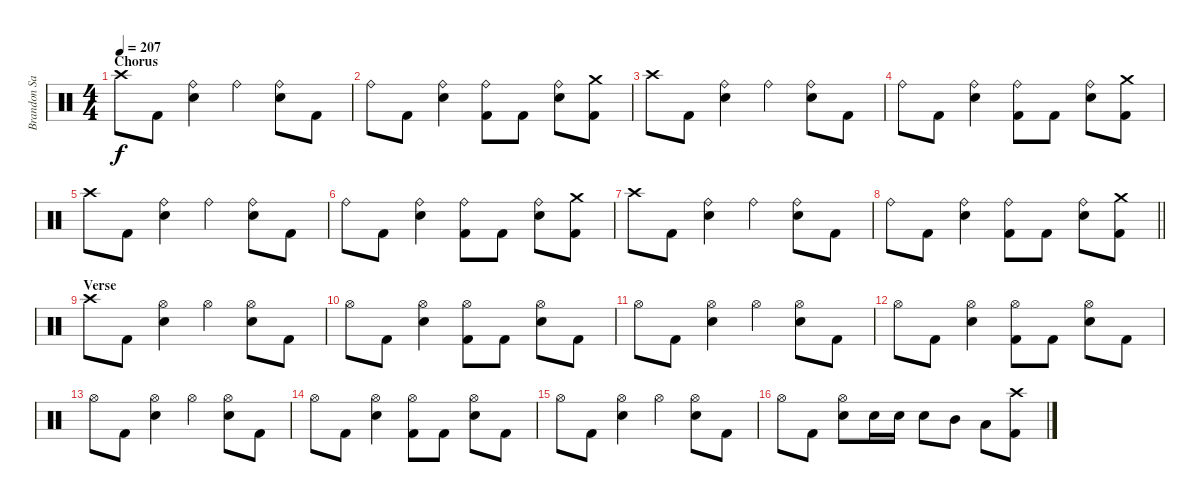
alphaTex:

\track ("Brandon Saller" "Brandon Sa") {instrument percussion}
\staff {score}
\articulation defaults
\ts (4 4)
\section ("" "Chorus")
\tempo 207
\clef neutral
\ks c "Crash high (hit)".8{dy f} "Kick (hit) 2".8
("Ride (bell)" "Electric Snare (hit)").4 "Ride (bell)".4 ("Ride (bell)" "Electric Snare (hit)").8 "Kick (hit) 2".8 |
"Ride (bell)".8 "Kick (hit) 2".8 ("Ride (bell)" "Electric Snare (hit)").4 ("Ride (bell)" "Kick (hit) 2").8 "Kick (hit) 2".8 ("Ride (bell)" "Electric Snare (hit)").8 ("Crash medium (hit)" "Kick (hit) 2").8 |
"Crash high (hit)".8 "Kick (hit) 2".8 ("Ride (bell)" "Electric Snare (hit)").4 "Ride (bell)".4 ("Ride (bell)" "Electric Snare (hit)").8 "Kick (hit) 2".8 |
"Ride (bell)".8 "Kick (hit) 2".8 ("Ride (bell)" "Electric Snare (hit)").4 ("Ride (bell)" "Kick (hit) 2").8 "Kick (hit) 2".8 ("Ride (bell)" "Electric Snare (hit)").8 ("Crash medium (hit)" "Kick (hit) 2").8 |
"Crash high (hit)".8 "Kick (hit) 2".8 ("Ride (bell)" "Electric Snare (hit)").4 "Ride (bell)".4 ("Ride (bell)" "Electric Snare (hit)").8 "Kick (hit) 2".8 |
"Ride (bell)".8 "Kick (hit) 2".8 ("Ride (bell)" "Electric Snare (hit)").4 ("Ride (bell)" "Kick (hit) 2").8 "Kick (hit) 2".8 ("Ride (bell)" "Electric Snare (hit)").8 ("Crash medium (hit)" "Kick (hit) 2").8 |
"Crash high (hit)".8 "Kick (hit) 2".8 ("Ride (bell)" "Electric Snare (hit)").4 "Ride (bell)".4 ("Ride (bell)" "Electric Snare (hit)").8 "Kick (hit) 2".8 |
\barLineRight lightlight "Ride (bell)".8 "Kick (hit) 2".8
("Ride (bell)" "Electric Snare (hit)").4 ("Ride (bell)" "Kick (hit) 2").8 "Kick (hit) 2".8 ("Ride (bell)" "Electric Snare (hit)").8 ("Crash medium (hit)" "Kick (hit) 2").8 |
\section ("" "Verse")
"Crash high (hit)".8 "Kick (hit) 2".8 ("Hi-Hat (open)" "Electric Snare (hit)").4 "Hi-Hat (open)".4 ("Hi-Hat (open)" "Electric Snare (hit)").8 "Kick (hit) 2".8 |
"Hi-Hat (open)".8 "Kick (hit) 2".8 ("Hi-Hat (open)" "Electric Snare (hit)").4 ("Hi-Hat (open)" "Kick (hit) 2").8 "Kick (hit) 2".8 ("Hi-Hat (open)" "Electric Snare (hit)").8 "Kick (hit) 2".8 |
"Hi-Hat (open)".8 "Kick (hit) 2".8 ("Hi-Hat (open)" "Electric Snare (hit)").4 "Hi-Hat (open)".4 ("Hi-Hat (open)" "Electric Snare (hit)").8 "Kick (hit) 2".8 |
"Hi-Hat (open)".8 "Kick (hit) 2".8 ("Hi-Hat (open)" "Electric Snare (hit)").4 ("Hi-Hat (open)" "Kick (hit) 2").8 "Kick (hit) 2".8 ("Hi-Hat (open)" "Electric Snare (hit)").8 "Kick (hit) 2".8 |
"Hi-Hat (open)".8 "Kick (hit) 2".8 ("Hi-Hat (open)" "Electric Snare (hit)").4 "Hi-Hat (open)".4 ("Hi-Hat (open)" "Electric Snare (hit)").8 "Kick (hit) 2".8 |
"Hi-Hat (open)".8 "Kick (hit) 2".8 ("Hi-Hat (open)" "Electric Snare (hit)").4 ("Hi-Hat (open)" "Kick (hit) 2").8 "Kick (hit) 2".8 ("Hi-Hat (open)" "Electric Snare (hit)").8 "Kick (hit) 2".8 |
"Hi-Hat (open)".8 "Kick (hit) 2".8 ("Hi-Hat (open)" "Electric Snare (hit)").4 "Hi-Hat (open)".4 ("Hi-Hat (open)" "Electric Snare (hit)").8 "Kick (hit) 2".8 |
"Hi-Hat (open)".8 "Kick (hit) 2".8 ("Hi-Hat (open)" "Electric Snare (hit)").8 "Electric Snare (hit)".16 "Electric Snare (hit)".16 "Electric Snare (hit)".8 "Mid Tom (hit)".8 "Low Tom (hit)".8 ("Crash high (hit)" "Kick (hit) 2").8
